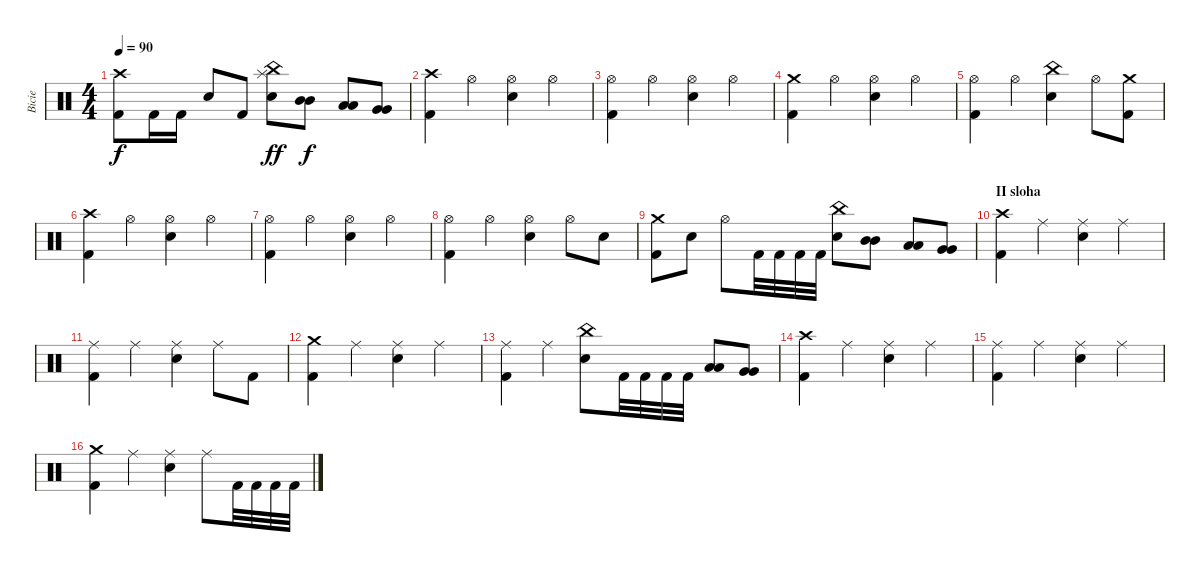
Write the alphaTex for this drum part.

\track ("Bicie" "Bicie") {instrument percussion}
\staff {score}
\articulation defaults
\ts (4 4)
\tempo 90
\clef neutral
\ks c
("Crash high (hit)" "Kick (hit) 2").8{dy f} "Kick (hit) 2".16 "Kick (hit) 2".16 "Electric Snare (hit)".8 "Kick (hit) 2".8 ("China (hit)" "Electric Snare (hit)" "Splash (hit)").8{dy ff} ("Mid Tom (hit)" "Mid Tom (hit)").8{dy f} ("Low Tom (hit)" "Low Tom (hit)").8 ("Very Low Tom (hit)" "Very Low Tom (hit)").8 |
\section ("" "")
("Crash high (hit)" "Kick (hit) 2").4 "Hi-Hat (open)".4 ("Hi-Hat (open)" "Electric Snare (hit)").4 "Hi-Hat (open)".4 |
("Hi-Hat (open)" "Kick (hit) 2").4 "Hi-Hat (open)".4 ("Hi-Hat (open)" "Electric Snare (hit)").4 "Hi-Hat (open)".4 |
("Crash medium (hit)" "Kick (hit) 2").4 "Hi-Hat (open)".4 ("Hi-Hat (open)" "Electric Snare (hit)").4 "Hi-Hat (open)".4 |
("Hi-Hat (open)" "Kick (hit) 2").4 "Hi-Hat (open)".4 ("China (hit)" "Electric Snare (hit)").4 "Hi-Hat (open)".8 ("Crash medium (hit)" "Kick (hit) 2").8 |
("Crash high (hit)" "Kick (hit) 2").4 "Hi-Hat (open)".4 ("Hi-Hat (open)" "Electric Snare (hit)").4 "Hi-Hat (open)".4 |
("Hi-Hat (open)" "Kick (hit) 2").4 "Hi-Hat (open)".4 ("Hi-Hat (open)" "Electric Snare (hit)").4 "Hi-Hat (open)".4 |
("Hi-Hat (open)" "Kick (hit) 2").4 "Hi-Hat (open)".4 ("Hi-Hat (open)" "Electric Snare (hit)").4 "Hi-Hat (open)".8 "Electric Snare (hit)".8 |
("Crash medium (hit)" "Kick (hit) 2").8 "Electric Snare (hit)".8 "Hi-Hat (open)".8 "Kick (hit) 2".32 "Kick (hit) 2".32 "Kick (hit) 2".32 "Kick (hit) 2".32 ("China (hit)" "Electric Snare (hit)").8 ("Mid Tom (hit)" "Mid Tom (hit)").8 ("Low Tom (hit)" "Low Tom (hit)").8 ("Very Low Tom (hit)" "Very Low Tom (hit)").8 |
\section ("" "II sloha")
("Crash high (hit)" "Kick (hit) 2").4 "Ride (middle)".4 ("Ride (middle)" "Electric Snare (hit)").4 "Ride (middle)".4 |
("Ride (middle)" "Kick (hit) 2").4 "Ride (middle)".4 ("Ride (middle)" "Electric Snare (hit)").4 "Ride (middle)".8 "Kick (hit) 2".8 |
("Crash medium (hit)" "Kick (hit) 2").4 "Ride (middle)".4 ("Ride (middle)" "Electric Snare (hit)").4 "Ride (middle)".4 |
("Ride (middle)" "Kick (hit) 2").4 "Ride (middle)".4 ("China (hit)" "Electric Snare (hit)").8 "Kick (hit) 2".32 "Kick (hit) 2".32 "Kick (hit) 2".32 "Kick (hit) 2".32 ("Low Tom (hit)" "Low Tom (hit)").8 ("Very Low Tom (hit)" "Very Low Tom (hit)").8 |
("Crash high (hit)" "Kick (hit) 2").4 "Ride (middle)".4 ("Ride (middle)" "Electric Snare (hit)").4 "Ride (middle)".4 |
("Ride (middle)" "Kick (hit) 2").4 "Ride (middle)".4 ("Ride (middle)" "Electric Snare (hit)").4 "Ride (middle)".4 |
("Crash medium (hit)" "Kick (hit) 2").4 "Ride (middle)".4 ("Ride (middle)" "Electric Snare (hit)").4 "Ride (middle)".8 "Kick (hit) 2".32 "Kick (hit) 2".32 "Kick (hit) 2".32 "Kick (hit) 2".32
